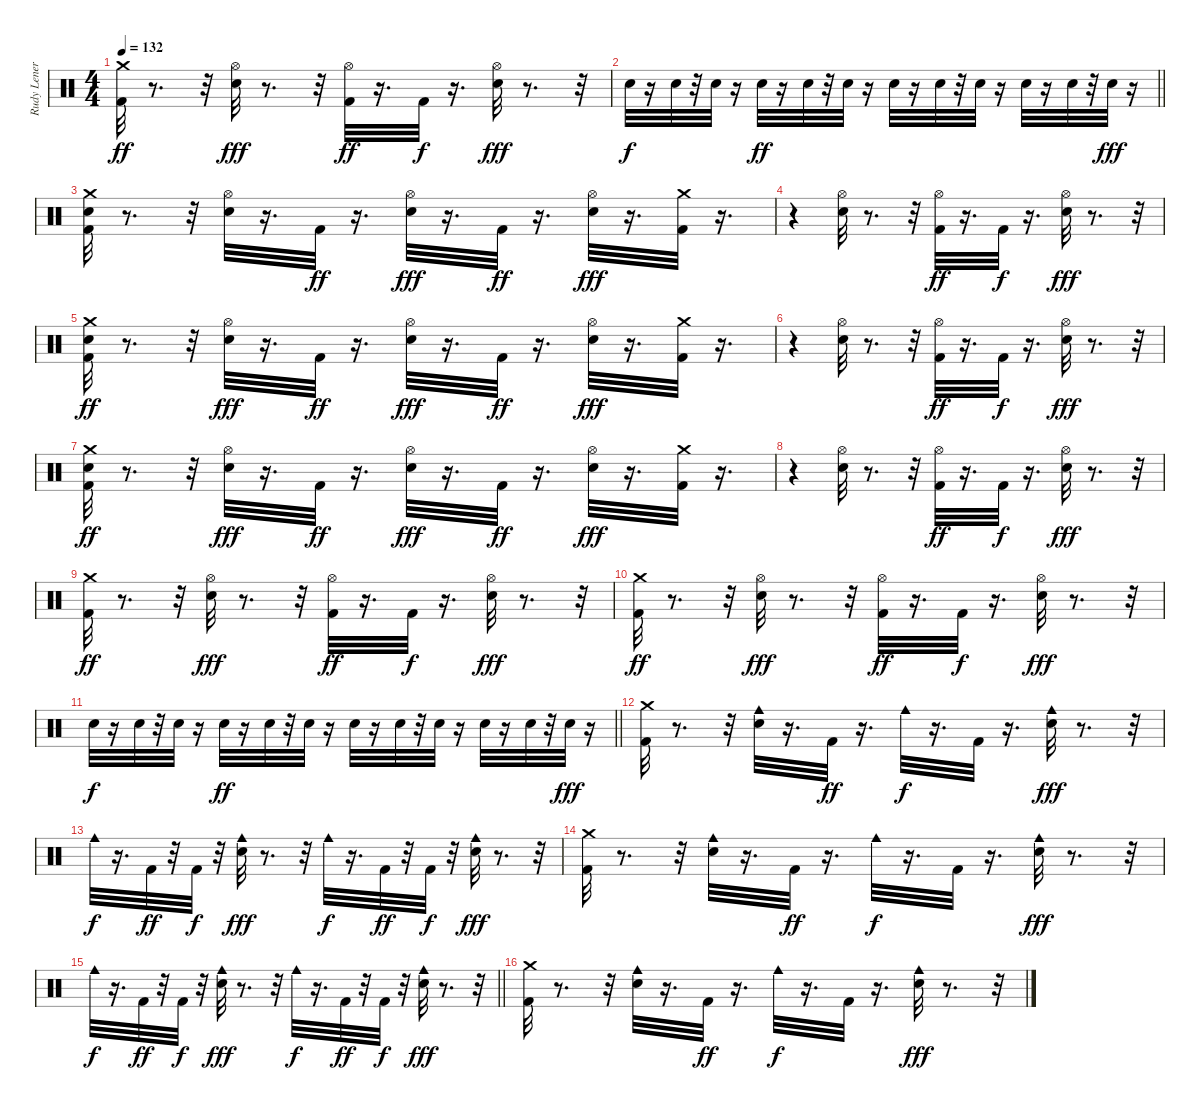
\track ("Rudy Leners" "Rudy Lener") {instrument percussion}
\staff {score}
\articulation defaults
\ts (4 4)
\tempo 132
\clef neutral
\ks c
("Crash medium (hit)" "Kick (hit) 2").32{dy ff} r.8{d} r.32 ("Hi-Hat (open)" "Snare (hit) 2").32{dy fff} r.8{d} r.32 ("Hi-Hat (open)" "Kick (hit) 2").32{dy ff} r.16{d} "Kick (hit) 2".32{dy f} r.16{d} ("Hi-Hat (open)" "Snare (hit) 2").32{dy fff} r.8{d} r.32 |
\barLineRight lightlight "Snare (hit) 2".32{dy f}
r.16 "Snare (hit) 2".32 r.32 "Snare (hit) 2".32 r.16 "Snare (hit) 2".32{dy ff} r.16 "Snare (hit) 2".32 r.32 "Snare (hit) 2".32 r.16 "Snare (hit) 2".32 r.16 "Snare (hit) 2".32 r.32 "Snare (hit) 2".32 r.16 "Snare (hit) 2".32 r.16 "Snare (hit) 2".32 r.32 "Snare (hit) 2".32{dy fff} r.16 |
("Snare (hit) 2" "Crash medium (hit)" "Kick (hit) 2").32 r.8{d} r.32 ("Hi-Hat (open)" "Snare (hit) 2").32 r.16{d} "Kick (hit) 2".32{dy ff} r.16{d} ("Hi-Hat (open)" "Snare (hit) 2").32{dy fff} r.16{d} "Kick (hit) 2".32{dy ff} r.16{d} ("Hi-Hat (open)" "Snare (hit) 2").32{dy fff} r.16{d} ("Kick (hit) 2" "Crash medium (hit)").32 r.16{d} |
r.4 ("Hi-Hat (open)" "Snare (hit) 2").32 r.8{d} r.32 ("Hi-Hat (open)" "Kick (hit) 2").32{dy ff} r.16{d} "Kick (hit) 2".32{dy f} r.16{d} ("Hi-Hat (open)" "Snare (hit) 2").32{dy fff} r.8{d} r.32 |
("Snare (hit) 2" "Crash medium (hit)" "Kick (hit) 2").32{dy ff} r.8{d} r.32 ("Hi-Hat (open)" "Snare (hit) 2").32{dy fff} r.16{d} "Kick (hit) 2".32{dy ff} r.16{d} ("Hi-Hat (open)" "Snare (hit) 2").32{dy fff} r.16{d} "Kick (hit) 2".32{dy ff} r.16{d} ("Hi-Hat (open)" "Snare (hit) 2").32{dy fff} r.16{d} ("Kick (hit) 2" "Crash medium (hit)").32 r.16{d} |
r.4 ("Hi-Hat (open)" "Snare (hit) 2").32 r.8{d} r.32 ("Hi-Hat (open)" "Kick (hit) 2").32{dy ff} r.16{d} "Kick (hit) 2".32{dy f} r.16{d} ("Hi-Hat (open)" "Snare (hit) 2").32{dy fff} r.8{d} r.32 |
("Snare (hit) 2" "Crash medium (hit)" "Kick (hit) 2").32{dy ff} r.8{d} r.32 ("Hi-Hat (open)" "Snare (hit) 2").32{dy fff} r.16{d} "Kick (hit) 2".32{dy ff} r.16{d} ("Hi-Hat (open)" "Snare (hit) 2").32{dy fff} r.16{d} "Kick (hit) 2".32{dy ff} r.16{d} ("Hi-Hat (open)" "Snare (hit) 2").32{dy fff} r.16{d} ("Kick (hit) 2" "Crash medium (hit)").32 r.16{d} |
r.4 ("Hi-Hat (open)" "Snare (hit) 2").32 r.8{d} r.32 ("Hi-Hat (open)" "Kick (hit) 2").32{dy ff} r.16{d} "Kick (hit) 2".32{dy f} r.16{d} ("Hi-Hat (open)" "Snare (hit) 2").32{dy fff} r.8{d} r.32 |
("Crash medium (hit)" "Kick (hit) 2").32{dy ff} r.8{d} r.32 ("Hi-Hat (open)" "Snare (hit) 2").32{dy fff} r.8{d} r.32 ("Hi-Hat (open)" "Kick (hit) 2").32{dy ff} r.16{d} "Kick (hit) 2".32{dy f} r.16{d} ("Hi-Hat (open)" "Snare (hit) 2").32{dy fff} r.8{d} r.32 |
("Crash medium (hit)" "Kick (hit) 2").32{dy ff} r.8{d} r.32 ("Hi-Hat (open)" "Snare (hit) 2").32{dy fff} r.8{d} r.32 ("Hi-Hat (open)" "Kick (hit) 2").32{dy ff} r.16{d} "Kick (hit) 2".32{dy f} r.16{d} ("Hi-Hat (open)" "Snare (hit) 2").32{dy fff} r.8{d} r.32 |
\barLineRight lightlight "Snare (hit) 2".32{dy f}
r.16 "Snare (hit) 2".32 r.32 "Snare (hit) 2".32 r.16 "Snare (hit) 2".32{dy ff} r.16 "Snare (hit) 2".32 r.32 "Snare (hit) 2".32 r.16 "Snare (hit) 2".32 r.16 "Snare (hit) 2".32 r.32 "Snare (hit) 2".32 r.16 "Snare (hit) 2".32 r.16 "Snare (hit) 2".32 r.32 "Snare (hit) 2".32{dy fff} r.16 |
("Kick (hit) 2" "Crash medium (hit)").32 r.8{d} r.32 ("Cowbell medium (hit)" "Snare (hit) 2").32 r.16{d} "Kick (hit) 2".32{dy ff} r.16{d} "Cowbell medium (hit)".32{dy f} r.16{d} "Kick (hit) 2".32 r.16{d} ("Cowbell medium (hit)" "Snare (hit) 2").32{dy fff} r.8{d} r.32 |
"Cowbell medium (hit)".32{dy f} r.16{d} "Kick (hit) 2".32{dy ff} r.32 "Kick (hit) 2".32{dy f} r.32 ("Cowbell medium (hit)" "Snare (hit) 2").32{dy fff} r.8{d} r.32 "Cowbell medium (hit)".32{dy f} r.16{d} "Kick (hit) 2".32{dy ff} r.32 "Kick (hit) 2".32{dy f} r.32 ("Cowbell medium (hit)" "Snare (hit) 2").32{dy fff} r.8{d} r.32 |
("Kick (hit) 2" "Crash medium (hit)").32 r.8{d} r.32 ("Cowbell medium (hit)" "Snare (hit) 2").32 r.16{d} "Kick (hit) 2".32{dy ff} r.16{d} "Cowbell medium (hit)".32{dy f} r.16{d} "Kick (hit) 2".32 r.16{d} ("Cowbell medium (hit)" "Snare (hit) 2").32{dy fff} r.8{d} r.32 |
\barLineRight lightlight "Cowbell medium (hit)".32{dy f}
r.16{d} "Kick (hit) 2".32{dy ff} r.32 "Kick (hit) 2".32{dy f} r.32 ("Cowbell medium (hit)" "Snare (hit) 2").32{dy fff} r.8{d} r.32 "Cowbell medium (hit)".32{dy f} r.16{d} "Kick (hit) 2".32{dy ff} r.32 "Kick (hit) 2".32{dy f} r.32 ("Cowbell medium (hit)" "Snare (hit) 2").32{dy fff} r.8{d} r.32 |
("Kick (hit) 2" "Crash medium (hit)").32 r.8{d} r.32 ("Cowbell medium (hit)" "Snare (hit) 2").32 r.16{d} "Kick (hit) 2".32{dy ff} r.16{d} "Cowbell medium (hit)".32{dy f} r.16{d} "Kick (hit) 2".32 r.16{d} ("Cowbell medium (hit)" "Snare (hit) 2").32{dy fff} r.8{d} r.32
